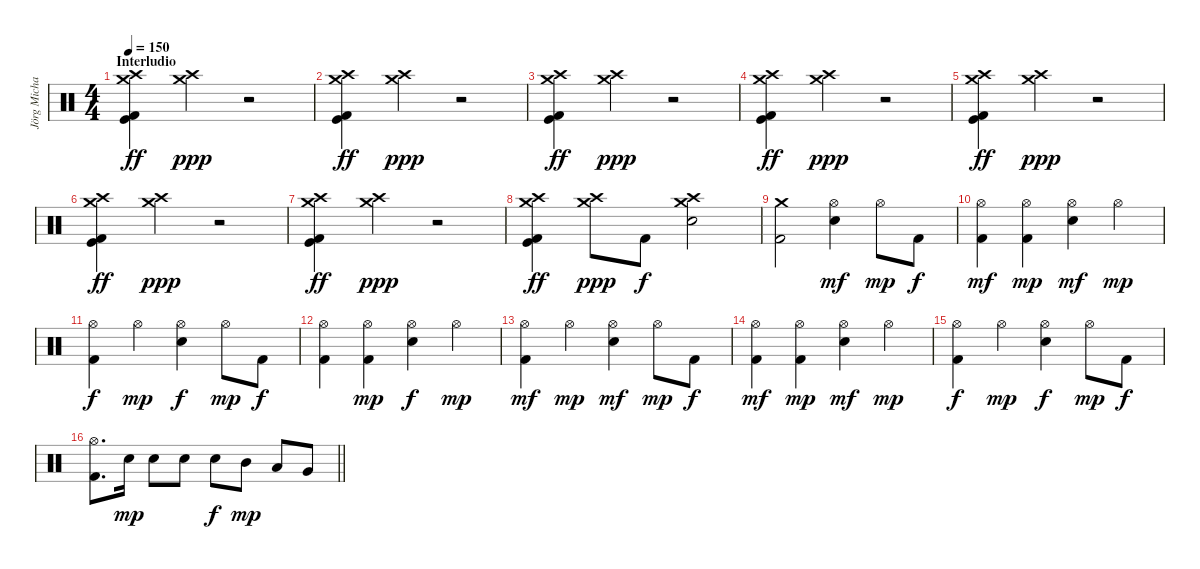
\track ("Jörg Michael" "Jörg Micha") {instrument percussion}
\staff {score}
\articulation defaults
\ts (4 4)
\section ("" "Interludio")
\tempo 150
\clef neutral
\ks c
("Crash medium (hit)" "Crash high (hit)" "Kick (hit)" "Kick (hit) 2").4{dy ff} ("Crash medium (hit)" "Crash high (hit)").4{dy ppp} r.2 |
("Crash medium (hit)" "Crash high (hit)" "Kick (hit)" "Kick (hit) 2").4{dy ff} ("Crash medium (hit)" "Crash high (hit)").4{dy ppp} r.2 |
("Crash medium (hit)" "Crash high (hit)" "Kick (hit)" "Kick (hit) 2").4{dy ff} ("Crash medium (hit)" "Crash high (hit)").4{dy ppp} r.2 |
("Crash medium (hit)" "Crash high (hit)" "Kick (hit)" "Kick (hit) 2").4{dy ff} ("Crash medium (hit)" "Crash high (hit)").4{dy ppp} r.2 |
("Crash medium (hit)" "Crash high (hit)" "Kick (hit)" "Kick (hit) 2").4{dy ff} ("Crash medium (hit)" "Crash high (hit)").4{dy ppp} r.2 |
("Crash medium (hit)" "Crash high (hit)" "Kick (hit)" "Kick (hit) 2").4{dy ff} ("Crash medium (hit)" "Crash high (hit)").4{dy ppp} r.2 |
("Crash medium (hit)" "Crash high (hit)" "Kick (hit)" "Kick (hit) 2").4{dy ff} ("Crash medium (hit)" "Crash high (hit)").4{dy ppp} r.2 |
("Crash medium (hit)" "Crash high (hit)" "Kick (hit)" "Kick (hit) 2").4{dy ff} ("Crash medium (hit)" "Crash high (hit)").8{dy ppp} "Kick (hit) 2".8{dy f} ("Crash medium (hit)" "Crash high (hit)" "Electric Snare (hit)").2 |
("Crash medium (hit)" "Kick (hit) 2").2 ("Hi-Hat (open)" "Electric Snare (hit)").4{dy mf} "Hi-Hat (open)".8{dy mp} "Kick (hit) 2".8{dy f} |
("Hi-Hat (open)" "Kick (hit) 2").4{dy mf} ("Hi-Hat (open)" "Kick (hit) 2").4{dy mp} ("Hi-Hat (open)" "Electric Snare (hit)").4{dy mf} "Hi-Hat (open)".4{dy mp} |
("Hi-Hat (open)" "Kick (hit) 2").4{dy f} "Hi-Hat (open)".4{dy mp} ("Hi-Hat (open)" "Electric Snare (hit)").4{dy f} "Hi-Hat (open)".8{dy mp} "Kick (hit) 2".8{dy f} |
("Hi-Hat (open)" "Kick (hit) 2").4 ("Hi-Hat (open)" "Kick (hit) 2").4{dy mp} ("Hi-Hat (open)" "Electric Snare (hit)").4{dy f} "Hi-Hat (open)".4{dy mp} |
("Hi-Hat (open)" "Kick (hit) 2").4{dy mf} "Hi-Hat (open)".4{dy mp} ("Hi-Hat (open)" "Electric Snare (hit)").4{dy mf} "Hi-Hat (open)".8{dy mp} "Kick (hit) 2".8{dy f} |
("Hi-Hat (open)" "Kick (hit) 2").4{dy mf} ("Hi-Hat (open)" "Kick (hit) 2").4{dy mp} ("Hi-Hat (open)" "Electric Snare (hit)").4{dy mf} "Hi-Hat (open)".4{dy mp} |
("Hi-Hat (open)" "Kick (hit) 2").4{dy f} "Hi-Hat (open)".4{dy mp} ("Hi-Hat (open)" "Electric Snare (hit)").4{dy f} "Hi-Hat (open)".8{dy mp} "Kick (hit) 2".8{dy f} |
\barLineRight lightlight
("Hi-Hat (open)" "Kick (hit) 2").8{d} "Electric Snare (hit)".16{dy mp} "Electric Snare (hit)".8 "Electric Snare (hit)".8 "Electric Snare (hit)".8{dy f} "Mid Tom (hit)".8{dy mp} "Low Tom (hit)".8 "Very Low Tom (hit)".8
